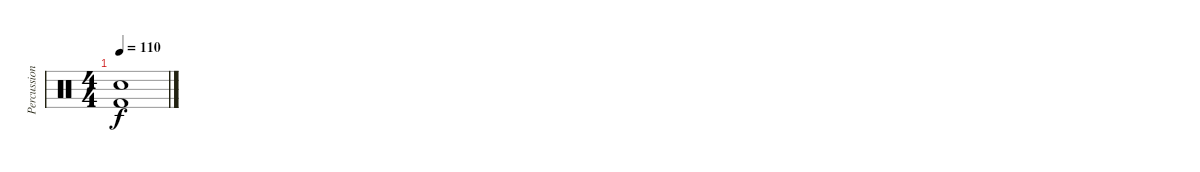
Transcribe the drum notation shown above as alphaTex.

\track ("Percussion" "Percussion") {instrument percussion}
\staff {score}
\articulation defaults
\ts (4 4)
\tempo 110
\clef neutral
\ks c
("Snare (hit) 2" "Kick (hit) 2").1{dy f}
